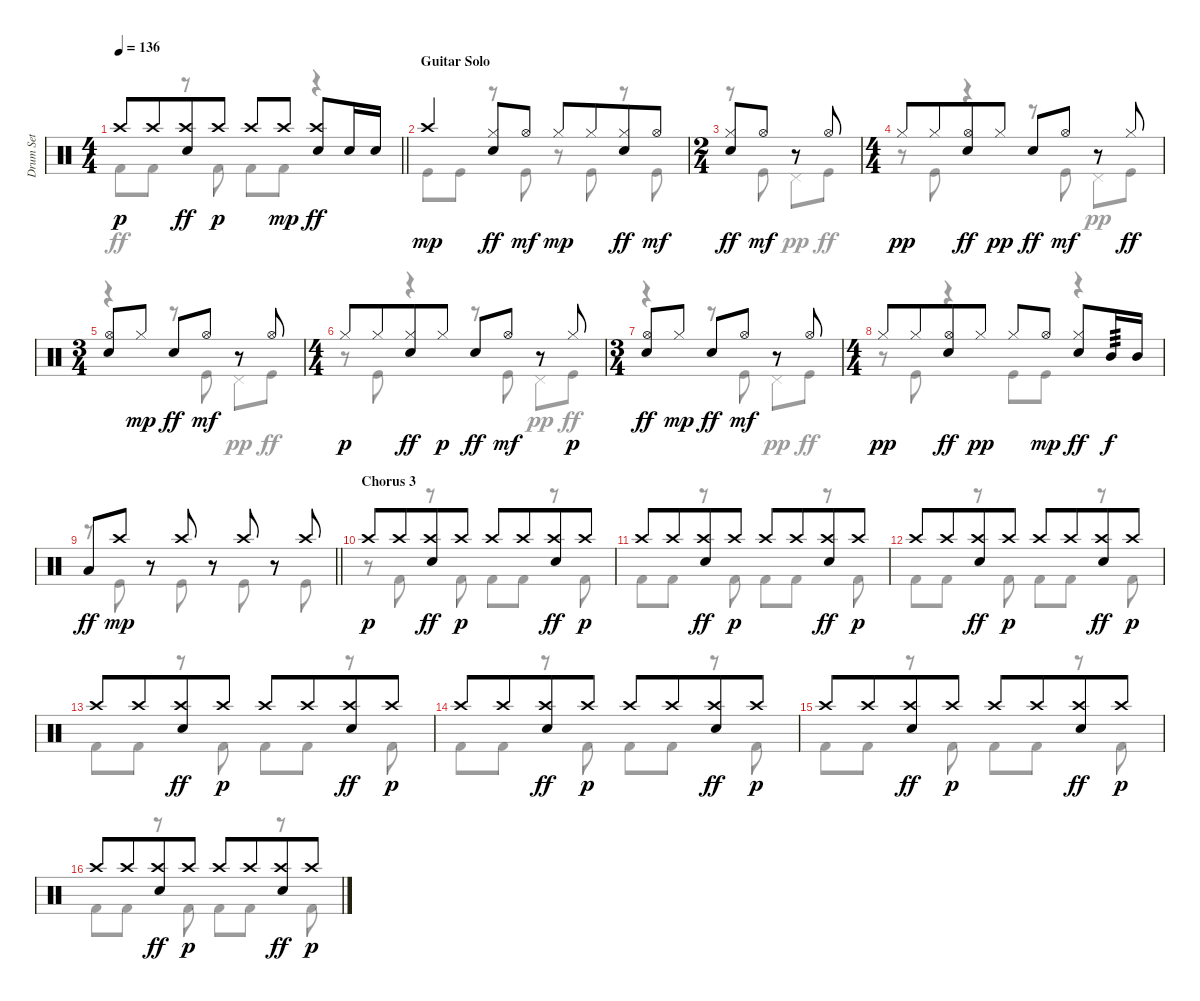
\track ("Drum Set" "Drum Set") {instrument percussion}
\staff {score}
\articulation defaults
\voice
\ts (4 4)
\tempo 136
\clef neutral
\barLineRight lightlight
\ks c "Crash high (hit)".8{dy p} "Crash high (hit)".8{beam merge}
("Crash high (hit)" "Electric Snare (hit)").8{dy ff} "Crash high (hit)".8{dy p} "Crash high (hit)".8 "Crash high (hit)".8{dy mp beam split} ("Crash high (hit)" "Electric Snare (hit)").8{dy ff} "Electric Snare (hit)".16 "Electric Snare (hit)".16 |
\section ("" "Guitar Solo")
"Crash high (hit)".4{dy mp} ("Hi-Hat (closed)" "Electric Snare (hit)").8{dy ff} "Hi-Hat (open)".8{dy mf} "Hi-Hat (closed)".8{dy mp} "Hi-Hat (closed)".8{beam merge} ("Hi-Hat (closed)" "Electric Snare (hit)").8{dy ff} "Hi-Hat (open)".8{dy mf} |
\ts (2 4)
("Hi-Hat (closed)" "Electric Snare (hit)").8{dy ff} "Hi-Hat (open)".8{dy mf} r.8 "Hi-Hat (open)".8 |
\ts (4 4)
"Hi-Hat (closed)".8{dy pp} "Hi-Hat (closed)".8{beam merge} ("Hi-Hat (open)" "Electric Snare (hit)").8{dy ff} "Hi-Hat (closed)".8{dy pp} "Electric Snare (hit)".8{dy ff} "Hi-Hat (open)".8{dy mf} r.8 "Hi-Hat (closed)".8{dy ff} |
\ts (3 4)
("Hi-Hat (open)" "Electric Snare (hit)").8 "Hi-Hat (closed)".8{dy mp} "Electric Snare (hit)".8{dy ff} "Hi-Hat (open)".8{dy mf} r.8 "Hi-Hat (open)".8 |
\ts (4 4)
"Hi-Hat (closed)".8{dy p} "Hi-Hat (closed)".8{beam merge} ("Hi-Hat (closed)" "Electric Snare (hit)").8{dy ff} "Hi-Hat (closed)".8{dy p} "Electric Snare (hit)".8{dy ff} "Hi-Hat (open)".8{dy mf} r.8 "Hi-Hat (closed)".8{dy p} |
\ts (3 4)
("Hi-Hat (open)" "Electric Snare (hit)").8{dy ff} "Hi-Hat (closed)".8{dy mp} "Electric Snare (hit)".8{dy ff} "Hi-Hat (open)".8{dy mf} r.8 "Hi-Hat (open)".8 |
\ts (4 4)
"Hi-Hat (closed)".8{dy pp} "Hi-Hat (closed)".8{beam merge} ("Hi-Hat (open)" "Electric Snare (hit)").8{dy ff} "Hi-Hat (closed)".8{dy pp} "Hi-Hat (closed)".8 "Hi-Hat (open)".8{dy mp} ("Hi-Hat (closed)" "Electric Snare (hit)").8{dy ff} "Mid Tom (hit)".16{tp 3 dy f} "Mid Tom (hit)".16 |
\barLineRight lightlight "Low Tom (hit)".8{dy ff} "Crash high (hit)".8{dy mp}
r.8 "Crash high (hit)".8 r.8 "Crash high (hit)".8 r.8 "Crash high (hit)".8 |
\section ("" "Chorus 3")
"Crash high (hit)".8{dy p} "Crash high (hit)".8{beam merge} ("Crash high (hit)" "Electric Snare (hit)").8{dy ff} "Crash high (hit)".8{dy p} "Crash high (hit)".8 "Crash high (hit)".8{beam merge} ("Crash high (hit)" "Electric Snare (hit)").8{dy ff} "Crash high (hit)".8{dy p} |
"Crash high (hit)".8 "Crash high (hit)".8{beam merge} ("Crash high (hit)" "Electric Snare (hit)").8{dy ff} "Crash high (hit)".8{dy p} "Crash high (hit)".8 "Crash high (hit)".8{beam merge} ("Crash high (hit)" "Electric Snare (hit)").8{dy ff} "Crash high (hit)".8{dy p} |
"Crash high (hit)".8 "Crash high (hit)".8{beam merge} ("Crash high (hit)" "Electric Snare (hit)").8{dy ff} "Crash high (hit)".8{dy p} "Crash high (hit)".8 "Crash high (hit)".8{beam merge} ("Crash high (hit)" "Electric Snare (hit)").8{dy ff} "Crash high (hit)".8{dy p} |
"Crash high (hit)".8 "Crash high (hit)".8{beam merge} ("Crash high (hit)" "Electric Snare (hit)").8{dy ff} "Crash high (hit)".8{dy p} "Crash high (hit)".8 "Crash high (hit)".8{beam merge} ("Crash high (hit)" "Electric Snare (hit)").8{dy ff} "Crash high (hit)".8{dy p} |
"Crash high (hit)".8 "Crash high (hit)".8{beam merge} ("Crash high (hit)" "Electric Snare (hit)").8{dy ff} "Crash high (hit)".8{dy p} "Crash high (hit)".8 "Crash high (hit)".8{beam merge} ("Crash high (hit)" "Electric Snare (hit)").8{dy ff} "Crash high (hit)".8{dy p} |
"Crash high (hit)".8 "Crash high (hit)".8{beam merge} ("Crash high (hit)" "Electric Snare (hit)").8{dy ff} "Crash high (hit)".8{dy p} "Crash high (hit)".8 "Crash high (hit)".8{beam merge} ("Crash high (hit)" "Electric Snare (hit)").8{dy ff} "Crash high (hit)".8{dy p} |
"Crash high (hit)".8 "Crash high (hit)".8{beam merge} ("Crash high (hit)" "Electric Snare (hit)").8{dy ff} "Crash high (hit)".8{dy p} "Crash high (hit)".8 "Crash high (hit)".8{beam merge} ("Crash high (hit)" "Electric Snare (hit)").8{dy ff} "Crash high (hit)".8{dy p}
\voice
\clef neutral
\ottava regular
\simile none
\barLineRight lightlight
\ks c "Kick (hit) 2".8{dy ff} "Kick (hit) 2".8
r.8 "Kick (hit) 2".8 "Kick (hit) 2".8 "Kick (hit) 2".8 r.4 |
"Kick (hit)".8 "Kick (hit)".8 r.8 "Kick (hit)".8 r.8 "Kick (hit)".8 r.8 "Kick (hit)".8 |
r.8 "Kick (hit)".8 "Pedal Hi-Hat (hit)".8{dy pp} "Kick (hit)".8{dy ff} |
r.8 "Kick (hit)".8 r.4 r.8 "Kick (hit)".8 "Pedal Hi-Hat (hit)".8{dy pp} "Kick (hit)".8{dy ff} |
r.4 r.8 "Kick (hit)".8 "Pedal Hi-Hat (hit)".8{dy pp} "Kick (hit)".8{dy ff} |
r.8 "Kick (hit)".8 r.4 r.8 "Kick (hit)".8 "Pedal Hi-Hat (hit)".8{dy pp} "Kick (hit)".8{dy ff} |
r.4 r.8 "Kick (hit)".8 "Pedal Hi-Hat (hit)".8{dy pp} "Kick (hit)".8{dy ff} |
r.8 "Kick (hit)".8 r.4 "Kick (hit)".8 "Kick (hit)".8 r.4 |
\barLineRight lightlight
r.8 "Kick (hit)".8 r.8 "Kick (hit)".8 r.8 "Kick (hit)".8 r.8 "Kick (hit)".8 |
r.8 "Kick (hit) 2".8 r.8 "Kick (hit) 2".8 "Kick (hit) 2".8 "Kick (hit) 2".8 r.8 "Kick (hit) 2".8 |
"Kick (hit) 2".8 "Kick (hit) 2".8 r.8 "Kick (hit) 2".8 "Kick (hit) 2".8 "Kick (hit) 2".8 r.8 "Kick (hit) 2".8 |
"Kick (hit) 2".8 "Kick (hit) 2".8 r.8 "Kick (hit) 2".8 "Kick (hit) 2".8 "Kick (hit) 2".8 r.8 "Kick (hit) 2".8 |
"Kick (hit) 2".8 "Kick (hit) 2".8 r.8 "Kick (hit) 2".8 "Kick (hit) 2".8 "Kick (hit) 2".8 r.8 "Kick (hit) 2".8 |
"Kick (hit) 2".8 "Kick (hit) 2".8 r.8 "Kick (hit) 2".8 "Kick (hit) 2".8 "Kick (hit) 2".8 r.8 "Kick (hit) 2".8 |
"Kick (hit) 2".8 "Kick (hit) 2".8 r.8 "Kick (hit) 2".8 "Kick (hit) 2".8 "Kick (hit) 2".8 r.8 "Kick (hit) 2".8 |
"Kick (hit) 2".8 "Kick (hit) 2".8 r.8 "Kick (hit) 2".8 "Kick (hit) 2".8 "Kick (hit) 2".8 r.8 "Kick (hit) 2".8
